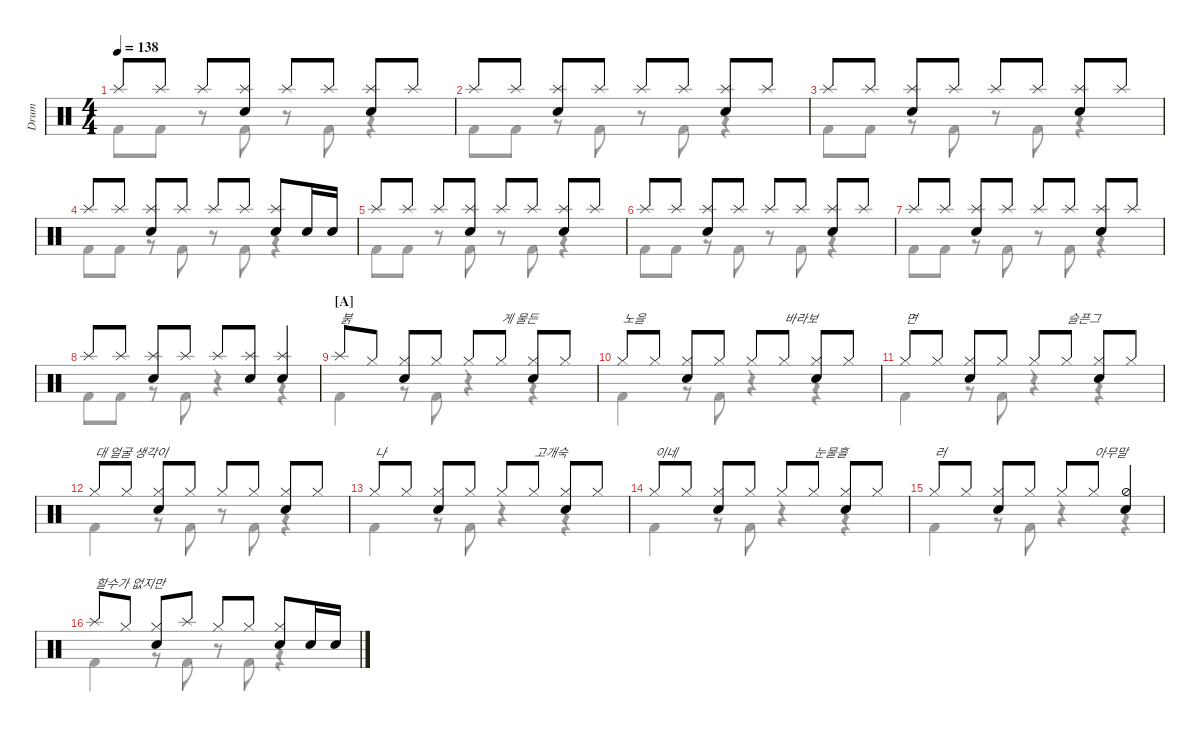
\defaultSystemsLayout 4
\hideDynamics
\bracketExtendMode nobrackets
\track ("Drumkit" "Drum") {instrument percussion}
\staff {score}
\articulation defaults
\voice
\ts (4 4)
\tempo 138
\clef neutral
\ks c "Splash (hit)".8{dy mf beam Up} "Splash (hit)".8{beam Up} "Splash (hit)".8{beam Up}
("Splash (hit)" "Snare (hit) 2").8{beam Up} "Splash (hit)".8{beam Up} "Splash (hit)".8{beam Up} ("Splash (hit)" "Snare (hit) 2").8{beam Up} "Splash (hit)".8{beam Up} |
"Splash (hit)".8{beam Up} "Splash (hit)".8{beam Up} ("Splash (hit)" "Snare (hit) 2").8{beam Up} "Splash (hit)".8{beam Up} "Splash (hit)".8{beam Up} "Splash (hit)".8{beam Up} ("Splash (hit)" "Snare (hit) 2").8{beam Up} "Splash (hit)".8{beam Up} |
"Splash (hit)".8{beam Up} "Splash (hit)".8{beam Up} ("Splash (hit)" "Snare (hit) 2").8{beam Up} "Splash (hit)".8{beam Up} "Splash (hit)".8{beam Up} "Splash (hit)".8{beam Up} ("Splash (hit)" "Snare (hit) 2").8{beam Up} "Splash (hit)".8{beam Up} |
"Splash (hit)".8{beam Up} "Splash (hit)".8{beam Up} ("Splash (hit)" "Snare (hit) 2").8{beam Up} "Splash (hit)".8{beam Up} "Splash (hit)".8{beam Up} "Splash (hit)".8{beam Up} ("Splash (hit)" "Snare (hit) 2").8{beam Up} "Snare (hit) 2".16{beam Up} "Snare (hit) 2".16{beam Up} |
"Splash (hit)".8{beam Up} "Splash (hit)".8{beam Up} "Splash (hit)".8{beam Up} ("Splash (hit)" "Snare (hit) 2").8{beam Up} "Splash (hit)".8{beam Up} "Splash (hit)".8{beam Up} ("Splash (hit)" "Snare (hit) 2").8{beam Up} "Splash (hit)".8{beam Up} |
"Splash (hit)".8{beam Up} "Splash (hit)".8{beam Up} ("Splash (hit)" "Snare (hit) 2").8{beam Up} "Splash (hit)".8{beam Up} "Splash (hit)".8{beam Up} "Splash (hit)".8{beam Up} ("Splash (hit)" "Snare (hit) 2").8{beam Up} "Splash (hit)".8{beam Up} |
"Splash (hit)".8{beam Up} "Splash (hit)".8{beam Up} ("Splash (hit)" "Snare (hit) 2").8{beam Up} "Splash (hit)".8{beam Up} "Splash (hit)".8{beam Up} "Splash (hit)".8{beam Up} ("Splash (hit)" "Snare (hit) 2").8{beam Up} "Splash (hit)".8{beam Up} |
"Splash (hit)".8{beam Up} "Splash (hit)".8{beam Up} ("Splash (hit)" "Snare (hit) 2").8{beam Up} "Splash (hit)".8{beam Up} "Splash (hit)".8{beam Up} ("Splash (hit)" "Snare (hit) 2").8{beam Up} ("Splash (hit)" "Snare (hit) 2").4{beam Up} |
\section ("A" "")
"Splash (hit)".8{txt "붉" beam Up} "Hi-Hat (closed)".8{beam Up} ("Hi-Hat (closed)" "Snare (hit) 2").8{beam Up} "Hi-Hat (closed)".8{beam Up} "Hi-Hat (closed)".8{beam Up} "Hi-Hat (closed)".8{txt "게 물든" beam Up} ("Hi-Hat (closed)" "Snare (hit) 2").8{beam Up} "Hi-Hat (closed)".8{beam Up} |
"Hi-Hat (closed)".8{txt "노을" beam Up} "Hi-Hat (closed)".8{beam Up} ("Hi-Hat (closed)" "Snare (hit) 2").8{beam Up} "Hi-Hat (closed)".8{beam Up} "Hi-Hat (closed)".8{beam Up} "Hi-Hat (closed)".8{txt "바라보" beam Up} ("Hi-Hat (closed)" "Snare (hit) 2").8{beam Up} "Hi-Hat (closed)".8{beam Up} |
"Hi-Hat (closed)".8{txt "면" beam Up} "Hi-Hat (closed)".8{beam Up} ("Hi-Hat (closed)" "Snare (hit) 2").8{beam Up} "Hi-Hat (closed)".8{beam Up} "Hi-Hat (closed)".8{beam Up} "Hi-Hat (closed)".8{txt "슬픈그" beam Up} ("Hi-Hat (closed)" "Snare (hit) 2").8{beam Up} "Hi-Hat (closed)".8{beam Up} |
"Hi-Hat (closed)".8{txt "대 얼굴 생각이" beam Up} "Hi-Hat (closed)".8{beam Up} ("Hi-Hat (closed)" "Snare (hit) 2").8{beam Up} "Hi-Hat (closed)".8{beam Up} "Hi-Hat (closed)".8{beam Up} "Hi-Hat (closed)".8{beam Up} ("Hi-Hat (closed)" "Snare (hit) 2").8{beam Up} "Hi-Hat (closed)".8{beam Up} |
"Hi-Hat (closed)".8{txt "나" beam Up} "Hi-Hat (closed)".8{beam Up} ("Hi-Hat (closed)" "Snare (hit) 2").8{beam Up} "Hi-Hat (closed)".8{beam Up} "Hi-Hat (closed)".8{beam Up} "Hi-Hat (closed)".8{txt "고개숙" beam Up} ("Hi-Hat (closed)" "Snare (hit) 2").8{beam Up} "Hi-Hat (closed)".8{beam Up} |
"Hi-Hat (closed)".8{txt "이네" beam Up} "Hi-Hat (closed)".8{beam Up} ("Hi-Hat (closed)" "Snare (hit) 2").8{beam Up} "Hi-Hat (closed)".8{beam Up} "Hi-Hat (closed)".8{beam Up} "Hi-Hat (closed)".8{txt "눈물흘" beam Up} ("Hi-Hat (closed)" "Snare (hit) 2").8{beam Up} "Hi-Hat (closed)".8{beam Up} |
"Hi-Hat (closed)".8{txt "러" beam Up} "Hi-Hat (closed)".8{beam Up} ("Hi-Hat (closed)" "Snare (hit) 2").8{beam Up} "Hi-Hat (closed)".8{beam Up} "Hi-Hat (closed)".8{beam Up} "Hi-Hat (closed)".8{txt "아무말" beam Up} ("Hi-Hat (half)" "Snare (hit) 2").4{beam Up} |
"Splash (hit)".8{txt "할수가 없지만" beam Up} "Hi-Hat (closed)".8{beam Up} ("Hi-Hat (closed)" "Snare (hit) 2").8{beam Up} "Splash (hit)".8{beam Up} "Hi-Hat (closed)".8{beam Up} "Hi-Hat (closed)".8{beam Up} ("Hi-Hat (closed)" "Snare (hit) 2").8{beam Up} "Snare (hit) 2".16{beam Up} "Snare (hit) 2".16{beam Up}
\voice
\clef neutral
\ottava regular
\simile none
\ks c
|
|
|
|
|
|
|
|
|
|
|
|
|
|
|
\voice
\clef neutral
\ottava regular
\simile none
\ks c "Kick (hit) 2".8{dy mf beam Down} "Kick (hit) 2".8{beam Down}
r.8{beam Down} "Kick (hit) 2".8{beam Down} r.8{beam Down} "Kick (hit) 2".8{beam Down} r.4{beam Down} |
"Kick (hit) 2".8{beam Down} "Kick (hit) 2".8{beam Down} r.8{beam Down} "Kick (hit) 2".8{beam Down} r.8{beam Down} "Kick (hit) 2".8{beam Down} r.4{beam Down} |
"Kick (hit) 2".8{beam Down} "Kick (hit) 2".8{beam Down} r.8{beam Down} "Kick (hit) 2".8{beam Down} r.8{beam Down} "Kick (hit) 2".8{beam Down} r.4{beam Down} |
"Kick (hit) 2".8{beam Down} "Kick (hit) 2".8{beam Down} r.8{beam Down} "Kick (hit) 2".8{beam Down} r.8{beam Down} "Kick (hit) 2".8{beam Down} r.4{beam Down} |
"Kick (hit) 2".8{beam Down} "Kick (hit) 2".8{beam Down} r.8{beam Down} "Kick (hit) 2".8{beam Down} r.8{beam Down} "Kick (hit) 2".8{beam Down} r.4{beam Down} |
"Kick (hit) 2".8{beam Down} "Kick (hit) 2".8{beam Down} r.8{beam Down} "Kick (hit) 2".8{beam Down} r.8{beam Down} "Kick (hit) 2".8{beam Down} r.4{beam Down} |
"Kick (hit) 2".8{beam Down} "Kick (hit) 2".8{beam Down} r.8{beam Down} "Kick (hit) 2".8{beam Down} r.8{beam Down} "Kick (hit) 2".8{beam Down} r.4{beam Down} |
"Kick (hit) 2".8{beam Down} "Kick (hit) 2".8{beam Down} r.8{beam Down} "Kick (hit) 2".8{beam Down} r.4{beam Down} r.4{beam Down} |
"Kick (hit) 2".4{beam Down} r.8{beam Down} "Kick (hit) 2".8{beam Down} r.4{beam Down} r.4{beam Down} |
"Kick (hit) 2".4{beam Down} r.8{beam Down} "Kick (hit) 2".8{beam Down} r.4{beam Down} r.4{beam Down} |
"Kick (hit) 2".4{beam Down} r.8{beam Down} "Kick (hit) 2".8{beam Down} r.4{beam Down} r.4{beam Down} |
"Kick (hit) 2".4{beam Down} r.8{beam Down} "Kick (hit) 2".8{beam Down} r.8{beam Down} "Kick (hit) 2".8{beam Down} r.4{beam Down} |
"Kick (hit) 2".4{beam Down} r.8{beam Down} "Kick (hit) 2".8{beam Down} r.4{beam Down} r.4{beam Down} |
"Kick (hit) 2".4{beam Down} r.8{beam Down} "Kick (hit) 2".8{beam Down} r.4{beam Down} r.4{beam Down} |
"Kick (hit) 2".4{beam Down} r.8{beam Down} "Kick (hit) 2".8{beam Down} r.4{beam Down} r.4{beam Down} |
"Kick (hit) 2".4{beam Down} r.8{beam Down} "Kick (hit) 2".8{beam Down} r.8{beam Down} "Kick (hit) 2".8{beam Down} r.4{beam Down}
